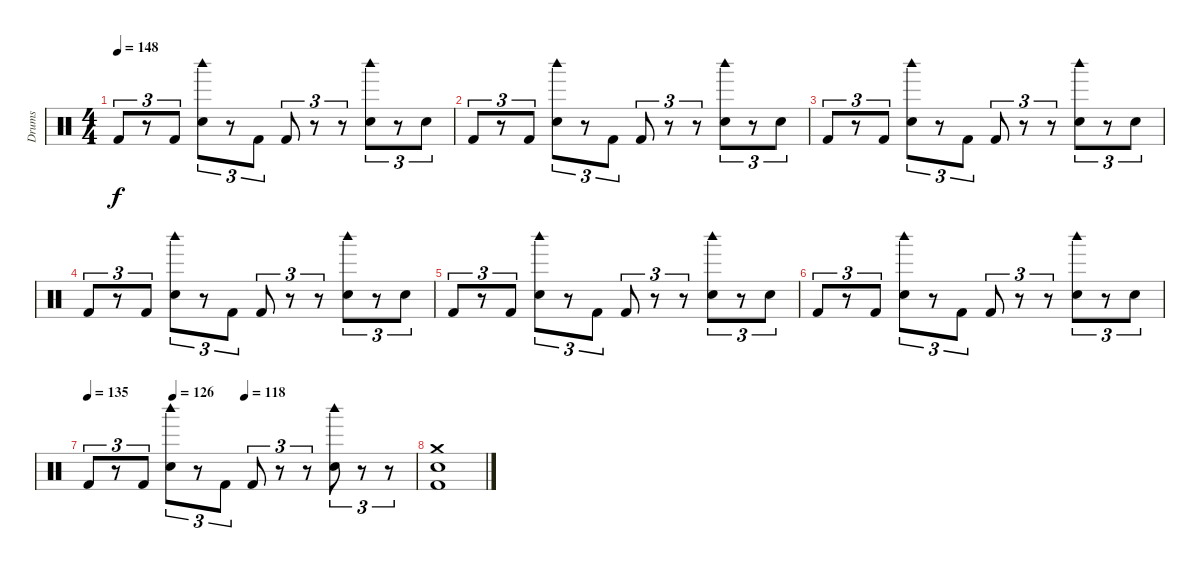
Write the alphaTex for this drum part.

\track ("Drums" "Drums") {instrument percussion}
\staff {score}
\articulation defaults
\ts (4 4)
\tempo 148
\clef neutral
\ks c "Kick (hit) 2".8{tu (3 2) dy f}
r.8{tu (3 2)} "Kick (hit) 2".8{tu (3 2)} ("Woodblock high (hit)" "Snare (hit) 2").8{tu (3 2)} r.8{tu (3 2)} "Kick (hit) 2".8{tu (3 2)} "Kick (hit) 2".8{tu (3 2)} r.8{tu (3 2)} r.8{tu (3 2)} ("Woodblock high (hit)" "Snare (hit) 2").8{tu (3 2)} r.8{tu (3 2)} "Snare (hit) 2".8{tu (3 2)} |
"Kick (hit) 2".8{tu (3 2)} r.8{tu (3 2)} "Kick (hit) 2".8{tu (3 2)} ("Woodblock high (hit)" "Snare (hit) 2").8{tu (3 2)} r.8{tu (3 2)} "Kick (hit) 2".8{tu (3 2)} "Kick (hit) 2".8{tu (3 2)} r.8{tu (3 2)} r.8{tu (3 2)} ("Woodblock high (hit)" "Snare (hit) 2").8{tu (3 2)} r.8{tu (3 2)} "Snare (hit) 2".8{tu (3 2)} |
"Kick (hit) 2".8{tu (3 2)} r.8{tu (3 2)} "Kick (hit) 2".8{tu (3 2)} ("Woodblock high (hit)" "Snare (hit) 2").8{tu (3 2)} r.8{tu (3 2)} "Kick (hit) 2".8{tu (3 2)} "Kick (hit) 2".8{tu (3 2)} r.8{tu (3 2)} r.8{tu (3 2)} ("Woodblock high (hit)" "Snare (hit) 2").8{tu (3 2)} r.8{tu (3 2)} "Snare (hit) 2".8{tu (3 2)} |
"Kick (hit) 2".8{tu (3 2)} r.8{tu (3 2)} "Kick (hit) 2".8{tu (3 2)} ("Woodblock high (hit)" "Snare (hit) 2").8{tu (3 2)} r.8{tu (3 2)} "Kick (hit) 2".8{tu (3 2)} "Kick (hit) 2".8{tu (3 2)} r.8{tu (3 2)} r.8{tu (3 2)} ("Woodblock high (hit)" "Snare (hit) 2").8{tu (3 2)} r.8{tu (3 2)} "Snare (hit) 2".8{tu (3 2)} |
"Kick (hit) 2".8{tu (3 2)} r.8{tu (3 2)} "Kick (hit) 2".8{tu (3 2)} ("Woodblock high (hit)" "Snare (hit) 2").8{tu (3 2)} r.8{tu (3 2)} "Kick (hit) 2".8{tu (3 2)} "Kick (hit) 2".8{tu (3 2)} r.8{tu (3 2)} r.8{tu (3 2)} ("Woodblock high (hit)" "Snare (hit) 2").8{tu (3 2)} r.8{tu (3 2)} "Snare (hit) 2".8{tu (3 2)} |
"Kick (hit) 2".8{tu (3 2)} r.8{tu (3 2)} "Kick (hit) 2".8{tu (3 2)} ("Woodblock high (hit)" "Snare (hit) 2").8{tu (3 2)} r.8{tu (3 2)} "Kick (hit) 2".8{tu (3 2)} "Kick (hit) 2".8{tu (3 2)} r.8{tu (3 2)} r.8{tu (3 2)} ("Woodblock high (hit)" "Snare (hit) 2").8{tu (3 2)} r.8{tu (3 2)} "Snare (hit) 2".8{tu (3 2)} |
\tempo 135
\tempo (126 0.2604166666666667)
\tempo (118 0.4791666666666667)
"Kick (hit) 2".8{tu (3 2)} r.8{tu (3 2)} "Kick (hit) 2".8{tu (3 2)} ("Woodblock high (hit)" "Snare (hit) 2").8{tu (3 2)} r.8{tu (3 2)} "Kick (hit) 2".8{tu (3 2)} "Kick (hit) 2".8{tu (3 2)} r.8{tu (3 2)} r.8{tu (3 2)} ("Woodblock high (hit)" "Snare (hit) 2").8{tu (3 2)} r.8{tu (3 2)} r.8{tu (3 2)} |
("Crash medium (hit)" "Snare (hit) 2" "Kick (hit) 2").1
